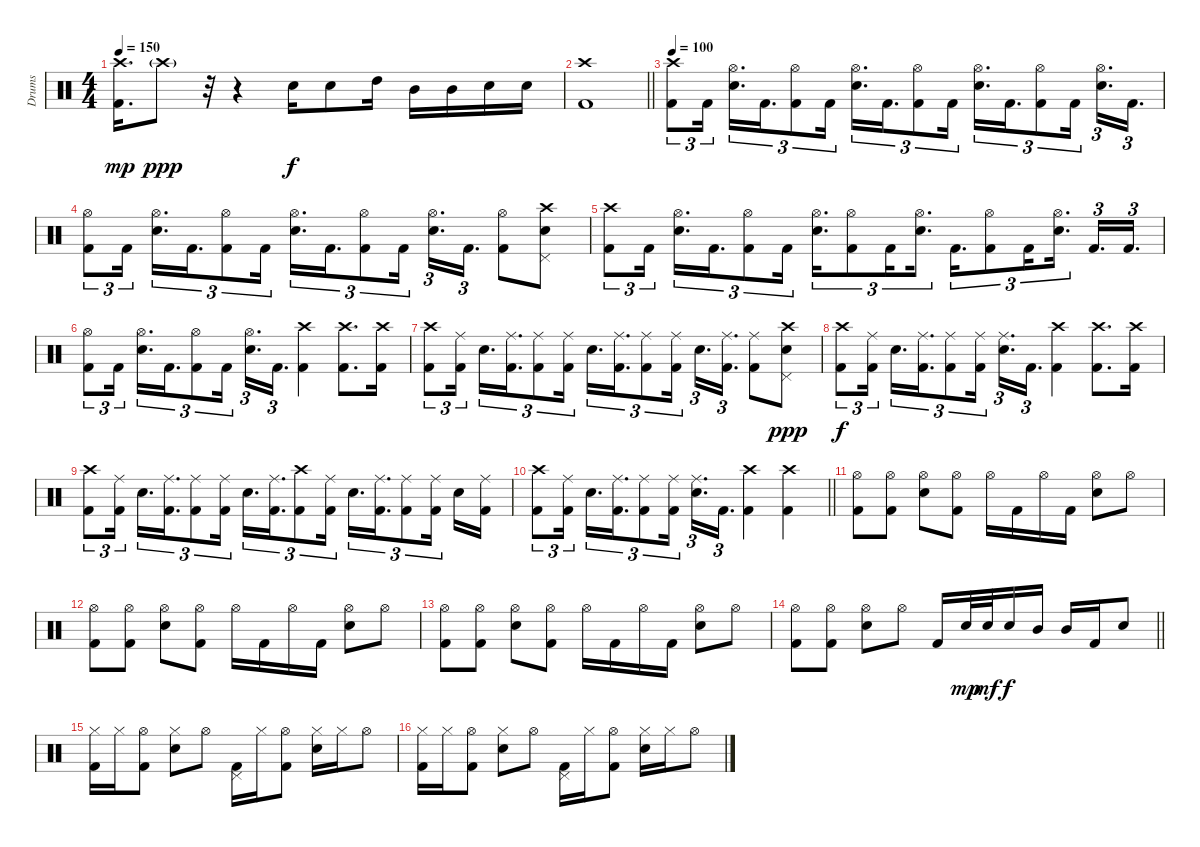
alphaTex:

\track ("Drums" "Drums") {instrument percussion}
\staff {score}
\articulation defaults
\ts (4 4)
\tempo 150
\clef neutral
\ks c
("Crash high (hit)" "Kick (hit) 2").16{d dy mp} "Crash high (hit)"{g}.8{dy ppp} r.32 r.4 "Electric Snare (hit)".16{dy f} "Electric Snare (hit)".8 "High Tom (hit)".16 "Mid Tom (hit)".16 "Mid Tom (hit)".16 "Electric Snare (hit)".16 "Electric Snare (hit)".16 |
\barLineRight lightlight
("Crash high (hit)" "Kick (hit) 2").1 |
\tempo 100
("Kick (hit) 2" "Crash high (hit)").8{tu (3 2)} "Kick (hit) 2".16{tu (3 2) beam splitsecondary} ("Hi-Hat (open)" "Electric Snare (hit)").16{d tu (3 2)} "Kick (hit) 2".16{d tu (3 2)} ("Kick (hit) 2" "Hi-Hat (open)").8{tu (3 2)} "Kick (hit) 2".16{tu (3 2) beam splitsecondary} ("Hi-Hat (open)" "Electric Snare (hit)").16{d tu (3 2)} "Kick (hit) 2".16{d tu (3 2)} ("Kick (hit) 2" "Hi-Hat (open)").8{tu (3 2)} "Kick (hit) 2".16{tu (3 2) beam splitsecondary} ("Hi-Hat (open)" "Electric Snare (hit)").16{d tu (3 2)} "Kick (hit) 2".16{d tu (3 2)} ("Kick (hit) 2" "Hi-Hat (open)").8{tu (3 2)} "Kick (hit) 2".16{tu (3 2) beam splitsecondary} ("Hi-Hat (open)" "Electric Snare (hit)").16{d tu (3 2)} "Kick (hit) 2".16{d tu (3 2)} |
("Kick (hit) 2" "Hi-Hat (open)").8{tu (3 2)} "Kick (hit) 2".16{tu (3 2) beam splitsecondary} ("Hi-Hat (open)" "Electric Snare (hit)").16{d tu (3 2)} "Kick (hit) 2".16{d tu (3 2)} ("Kick (hit) 2" "Hi-Hat (open)").8{tu (3 2)} "Kick (hit) 2".16{tu (3 2) beam splitsecondary} ("Hi-Hat (open)" "Electric Snare (hit)").16{d tu (3 2)} "Kick (hit) 2".16{d tu (3 2)} ("Kick (hit) 2" "Hi-Hat (open)").8{tu (3 2)} "Kick (hit) 2".16{tu (3 2) beam splitsecondary} ("Hi-Hat (open)" "Electric Snare (hit)").16{d tu (3 2)} "Kick (hit) 2".16{d tu (3 2)} ("Kick (hit) 2" "Hi-Hat (open)").8 ("Crash high (hit)" "Electric Snare (hit)" "Pedal Hi-Hat (hit)").8 |
("Kick (hit) 2" "Crash high (hit)").8{tu (3 2)} "Kick (hit) 2".16{tu (3 2) beam splitsecondary} ("Hi-Hat (open)" "Electric Snare (hit)").16{d tu (3 2)} "Kick (hit) 2".16{d tu (3 2)} ("Kick (hit) 2" "Hi-Hat (open)").8{tu (3 2)} "Kick (hit) 2".16{tu (3 2) beam splitsecondary} ("Hi-Hat (open)" "Electric Snare (hit)").16{d tu (3 2)} ("Kick (hit) 2" "Hi-Hat (open)").8{tu (3 2)} "Kick (hit) 2".16{tu (3 2) beam splitsecondary} ("Hi-Hat (open)" "Electric Snare (hit)").16{d tu (3 2)} "Kick (hit) 2".16{d tu (3 2)} ("Kick (hit) 2" "Hi-Hat (open)").8{tu (3 2)} "Kick (hit) 2".16{tu (3 2) beam splitsecondary} ("Hi-Hat (open)" "Electric Snare (hit)").16{d tu (3 2)} "Kick (hit) 2".16{d tu (3 2)} "Kick (hit) 2".16{d tu (3 2)} |
("Kick (hit) 2" "Hi-Hat (open)").8{tu (3 2)} "Kick (hit) 2".16{tu (3 2) beam splitsecondary} ("Hi-Hat (open)" "Electric Snare (hit)").16{d tu (3 2)} "Kick (hit) 2".16{d tu (3 2)} ("Kick (hit) 2" "Hi-Hat (open)").8{tu (3 2)} "Kick (hit) 2".16{tu (3 2) beam splitsecondary} ("Hi-Hat (open)" "Electric Snare (hit)").16{d tu (3 2)} "Kick (hit) 2".16{d tu (3 2)} ("Kick (hit) 2" "Crash high (hit)").4 ("Kick (hit) 2" "Crash high (hit)").8{d} ("Kick (hit) 2" "Crash high (hit)").16 |
("Kick (hit) 2" "Crash high (hit)").8{tu (3 2)} ("Kick (hit) 2" "Ride (middle)").16{tu (3 2) beam splitsecondary} "Electric Snare (hit)".16{d tu (3 2)} ("Kick (hit) 2" "Ride (middle)").16{d tu (3 2)} ("Kick (hit) 2" "Ride (middle)").8{tu (3 2)} ("Kick (hit) 2" "Ride (middle)").16{tu (3 2) beam splitsecondary} "Electric Snare (hit)".16{d tu (3 2)} ("Kick (hit) 2" "Ride (middle)").16{d tu (3 2)} ("Kick (hit) 2" "Ride (middle)").8{tu (3 2)} ("Kick (hit) 2" "Ride (middle)").16{tu (3 2) beam splitsecondary} "Electric Snare (hit)".16{d tu (3 2)} ("Kick (hit) 2" "Ride (middle)").16{d tu (3 2)} ("Kick (hit) 2" "Ride (middle)").8 ("Crash high (hit)" "Electric Snare (hit)" "Pedal Hi-Hat (hit)").8{dy ppp} |
("Kick (hit) 2" "Crash high (hit)").8{tu (3 2) dy f} ("Kick (hit) 2" "Ride (middle)").16{tu (3 2) beam splitsecondary} "Electric Snare (hit)".16{d tu (3 2)} ("Kick (hit) 2" "Ride (middle)").16{d tu (3 2)} ("Kick (hit) 2" "Ride (middle)").8{tu (3 2)} ("Kick (hit) 2" "Ride (middle)").16{tu (3 2) beam splitsecondary} ("Electric Snare (hit)" "Ride (middle)").16{d tu (3 2)} "Kick (hit) 2".16{d tu (3 2)} ("Kick (hit) 2" "Crash high (hit)").4 ("Kick (hit) 2" "Crash high (hit)").8{d} ("Kick (hit) 2" "Crash high (hit)").16 |
("Kick (hit) 2" "Crash high (hit)").8{tu (3 2)} ("Kick (hit) 2" "Ride (middle)").16{tu (3 2) beam splitsecondary} "Electric Snare (hit)".16{d tu (3 2)} ("Kick (hit) 2" "Ride (middle)").16{d tu (3 2)} ("Kick (hit) 2" "Ride (middle)").8{tu (3 2)} ("Kick (hit) 2" "Ride (middle)").16{tu (3 2) beam splitsecondary} "Electric Snare (hit)".16{d tu (3 2)} ("Kick (hit) 2" "Ride (middle)").16{d tu (3 2)} ("Kick (hit) 2" "Crash high (hit)").8{tu (3 2)} ("Kick (hit) 2" "Ride (middle)").16{tu (3 2) beam splitsecondary} "Electric Snare (hit)".16{d tu (3 2)} ("Kick (hit) 2" "Ride (middle)").16{d tu (3 2)} ("Kick (hit) 2" "Ride (middle)").8{tu (3 2)} ("Kick (hit) 2" "Ride (middle)").16{tu (3 2) beam splitsecondary} "Electric Snare (hit)".16 ("Kick (hit) 2" "Ride (middle)").16 |
\barLineRight lightlight
("Kick (hit) 2" "Crash high (hit)").8{tu (3 2)} ("Kick (hit) 2" "Ride (middle)").16{tu (3 2) beam splitsecondary} "Electric Snare (hit)".16{d tu (3 2)} ("Kick (hit) 2" "Ride (middle)").16{d tu (3 2)} ("Kick (hit) 2" "Ride (middle)").8{tu (3 2)} ("Kick (hit) 2" "Ride (middle)").16{tu (3 2) beam splitsecondary} ("Electric Snare (hit)" "Ride (middle)").16{d tu (3 2)} "Kick (hit) 2".16{d tu (3 2)} ("Kick (hit) 2" "Crash high (hit)").4 ("Kick (hit) 2" "Crash high (hit)").4 |
("Hi-Hat (open)" "Kick (hit) 2").8 ("Hi-Hat (open)" "Kick (hit) 2").8 ("Hi-Hat (open)" "Electric Snare (hit)").8 ("Hi-Hat (open)" "Kick (hit) 2").8 "Hi-Hat (open)".16 "Kick (hit) 2".16 "Hi-Hat (open)".16 "Kick (hit) 2".16 ("Hi-Hat (open)" "Electric Snare (hit)").8 "Hi-Hat (open)".8 |
("Hi-Hat (open)" "Kick (hit) 2").8 ("Hi-Hat (open)" "Kick (hit) 2").8 ("Hi-Hat (open)" "Electric Snare (hit)").8 ("Hi-Hat (open)" "Kick (hit) 2").8 "Hi-Hat (open)".16 "Kick (hit) 2".16 "Hi-Hat (open)".16 "Kick (hit) 2".16 ("Hi-Hat (open)" "Electric Snare (hit)").8 "Hi-Hat (open)".8 |
("Hi-Hat (open)" "Kick (hit) 2").8 ("Hi-Hat (open)" "Kick (hit) 2").8 ("Hi-Hat (open)" "Electric Snare (hit)").8 ("Hi-Hat (open)" "Kick (hit) 2").8 "Hi-Hat (open)".16 "Kick (hit) 2".16 "Hi-Hat (open)".16 "Kick (hit) 2".16 ("Hi-Hat (open)" "Electric Snare (hit)").8 "Hi-Hat (open)".8 |
\barLineRight lightlight
("Hi-Hat (open)" "Kick (hit) 2").8 ("Hi-Hat (open)" "Kick (hit) 2").8 ("Hi-Hat (open)" "Electric Snare (hit)").8 "Hi-Hat (open)".8 "Kick (hit) 2".16 "Electric Snare (hit)".32{dy mp} "Electric Snare (hit)".32{dy mf} "Electric Snare (hit)".16{dy f} "Mid Tom (hit)".16 "Mid Tom (hit)".16 "Kick (hit) 2".16 "Electric Snare (hit)".8 |
("Hi-Hat (closed)" "Kick (hit) 2").16 "Hi-Hat (closed)".16 ("Hi-Hat (open)" "Kick (hit) 2").8 ("Hi-Hat (closed)" "Electric Snare (hit)").8 "Hi-Hat (open)".8 ("Pedal Hi-Hat (hit)" "Kick (hit) 2").16 "Hi-Hat (closed)".16 ("Hi-Hat (open)" "Kick (hit) 2").8 ("Hi-Hat (closed)" "Electric Snare (hit)").16 "Hi-Hat (closed)".16 "Hi-Hat (open)".8 |
("Hi-Hat (closed)" "Kick (hit) 2").16 "Hi-Hat (closed)".16 ("Hi-Hat (open)" "Kick (hit) 2").8 ("Hi-Hat (closed)" "Electric Snare (hit)").8 "Hi-Hat (open)".8 ("Pedal Hi-Hat (hit)" "Kick (hit) 2").16 "Hi-Hat (closed)".16 ("Hi-Hat (open)" "Kick (hit) 2").8 ("Hi-Hat (closed)" "Electric Snare (hit)").16 "Hi-Hat (closed)".16 "Hi-Hat (open)".8
